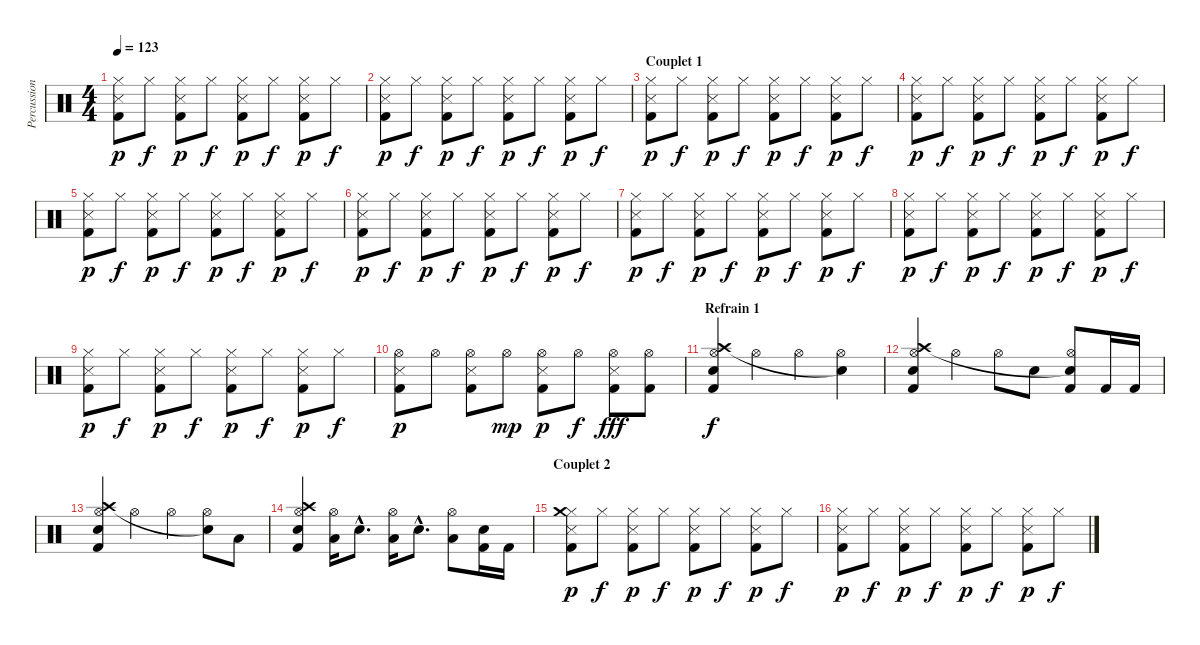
\track ("Percussions" "Percussion") {instrument percussion}
\staff {score}
\articulation defaults
\ts (4 4)
\tempo 123
\clef neutral
\ks c
("Hi-Hat (closed)" "Snare (side stick) 3" "Kick (hit) 2").8{dy p} "Hi-Hat (closed)".8{dy f} ("Hi-Hat (closed)" "Snare (side stick) 3" "Kick (hit) 2").8{dy p} "Hi-Hat (closed)".8{dy f} ("Hi-Hat (closed)" "Snare (side stick) 3" "Kick (hit) 2").8{dy p} "Hi-Hat (closed)".8{dy f} ("Hi-Hat (closed)" "Snare (side stick) 3" "Kick (hit) 2").8{dy p} "Hi-Hat (closed)".8{dy f} |
("Hi-Hat (closed)" "Snare (side stick) 3" "Kick (hit) 2").8{dy p} "Hi-Hat (closed)".8{dy f} ("Hi-Hat (closed)" "Snare (side stick) 3" "Kick (hit) 2").8{dy p} "Hi-Hat (closed)".8{dy f} ("Hi-Hat (closed)" "Snare (side stick) 3" "Kick (hit) 2").8{dy p} "Hi-Hat (closed)".8{dy f} ("Hi-Hat (closed)" "Snare (side stick) 3" "Kick (hit) 2").8{dy p} "Hi-Hat (closed)".8{dy f} |
\section ("" "Couplet 1")
("Hi-Hat (closed)" "Snare (side stick) 3" "Kick (hit) 2").8{dy p} "Hi-Hat (closed)".8{dy f} ("Hi-Hat (closed)" "Snare (side stick) 3" "Kick (hit) 2").8{dy p} "Hi-Hat (closed)".8{dy f} ("Hi-Hat (closed)" "Snare (side stick) 3" "Kick (hit) 2").8{dy p} "Hi-Hat (closed)".8{dy f} ("Hi-Hat (closed)" "Snare (side stick) 3" "Kick (hit) 2").8{dy p} "Hi-Hat (closed)".8{dy f} |
("Hi-Hat (closed)" "Snare (side stick) 3" "Kick (hit) 2").8{dy p} "Hi-Hat (closed)".8{dy f} ("Hi-Hat (closed)" "Snare (side stick) 3" "Kick (hit) 2").8{dy p} "Hi-Hat (closed)".8{dy f} ("Hi-Hat (closed)" "Snare (side stick) 3" "Kick (hit) 2").8{dy p} "Hi-Hat (closed)".8{dy f} ("Hi-Hat (closed)" "Snare (side stick) 3" "Kick (hit) 2").8{dy p} "Hi-Hat (closed)".8{dy f} |
("Hi-Hat (closed)" "Snare (side stick) 3" "Kick (hit) 2").8{dy p} "Hi-Hat (closed)".8{dy f} ("Hi-Hat (closed)" "Snare (side stick) 3" "Kick (hit) 2").8{dy p} "Hi-Hat (closed)".8{dy f} ("Hi-Hat (closed)" "Snare (side stick) 3" "Kick (hit) 2").8{dy p} "Hi-Hat (closed)".8{dy f} ("Hi-Hat (closed)" "Snare (side stick) 3" "Kick (hit) 2").8{dy p} "Hi-Hat (closed)".8{dy f} |
("Hi-Hat (closed)" "Snare (side stick) 3" "Kick (hit) 2").8{dy p} "Hi-Hat (closed)".8{dy f} ("Hi-Hat (closed)" "Snare (side stick) 3" "Kick (hit) 2").8{dy p} "Hi-Hat (closed)".8{dy f} ("Hi-Hat (closed)" "Snare (side stick) 3" "Kick (hit) 2").8{dy p} "Hi-Hat (closed)".8{dy f} ("Hi-Hat (closed)" "Snare (side stick) 3" "Kick (hit) 2").8{dy p} "Hi-Hat (closed)".8{dy f} |
("Hi-Hat (closed)" "Snare (side stick) 3" "Kick (hit) 2").8{dy p} "Hi-Hat (closed)".8{dy f} ("Hi-Hat (closed)" "Snare (side stick) 3" "Kick (hit) 2").8{dy p} "Hi-Hat (closed)".8{dy f} ("Hi-Hat (closed)" "Snare (side stick) 3" "Kick (hit) 2").8{dy p} "Hi-Hat (closed)".8{dy f} ("Hi-Hat (closed)" "Snare (side stick) 3" "Kick (hit) 2").8{dy p} "Hi-Hat (closed)".8{dy f} |
("Hi-Hat (closed)" "Snare (side stick) 3" "Kick (hit) 2").8{dy p} "Hi-Hat (closed)".8{dy f} ("Hi-Hat (closed)" "Snare (side stick) 3" "Kick (hit) 2").8{dy p} "Hi-Hat (closed)".8{dy f} ("Hi-Hat (closed)" "Snare (side stick) 3" "Kick (hit) 2").8{dy p} "Hi-Hat (closed)".8{dy f} ("Hi-Hat (closed)" "Snare (side stick) 3" "Kick (hit) 2").8{dy p} "Hi-Hat (closed)".8{dy f} |
("Hi-Hat (closed)" "Snare (side stick) 3" "Kick (hit) 2").8{dy p} "Hi-Hat (closed)".8{dy f} ("Hi-Hat (closed)" "Snare (side stick) 3" "Kick (hit) 2").8{dy p} "Hi-Hat (closed)".8{dy f} ("Hi-Hat (closed)" "Snare (side stick) 3" "Kick (hit) 2").8{dy p} "Hi-Hat (closed)".8{dy f} ("Hi-Hat (closed)" "Snare (side stick) 3" "Kick (hit) 2").8{dy p} "Hi-Hat (closed)".8{dy f} |
("Hi-Hat (open)" "Snare (side stick) 3" "Kick (hit) 2").8{dy p} "Hi-Hat (open)".8 ("Hi-Hat (open)" "Snare (side stick) 3" "Kick (hit) 2").8 "Hi-Hat (open)".8{dy mp} ("Hi-Hat (open)" "Snare (side stick) 3" "Kick (hit) 2").8{dy p} "Hi-Hat (open)".8{dy f} ("Hi-Hat (open)" "Snare (side stick) 3" "Kick (hit) 2").8{dy fff} ("Hi-Hat (open)" "Kick (hit) 2").8 |
\section ("" "Refrain 1")
("Hi-Hat (open)" "Crash high (hit)" "Electric Snare (hit)" "Kick (hit) 2").4{dy f} "Hi-Hat (open)".4 "Hi-Hat (open)".4 ("Hi-Hat (open)" "Snare (hit)"{t}).4 |
("Hi-Hat (open)" "Crash high (hit)" "Electric Snare (hit)" "Kick (hit) 2").4 "Hi-Hat (open)".4 "Hi-Hat (open)".8 "Electric Snare (hit)".8 ("Hi-Hat (open)" "Snare (hit)"{t} "Kick (hit) 2").8 "Kick (hit) 2".16 "Kick (hit) 2".16 |
("Hi-Hat (open)" "Crash high (hit)" "Electric Snare (hit)" "Kick (hit) 2").4 "Hi-Hat (open)".4 "Hi-Hat (open)".4 ("Hi-Hat (open)" "Snare (hit)"{t}).8 "Low Floor Tom (hit)".8 |
("Hi-Hat (open)" "Crash high (hit)" "Electric Snare (hit)" "Kick (hit) 2").4 ("Hi-Hat (open)" "Low Floor Tom (hit)").16 "Electric Snare (hit)"{hac}.8{d} ("Hi-Hat (open)" "Low Floor Tom (hit)").16 "Electric Snare (hit)"{hac}.8{d} ("Hi-Hat (open)" "Low Floor Tom (hit)").8 ("Electric Snare (hit)" "Kick (hit) 2").16 "Kick (hit) 2".16 |
\section ("" "Couplet 2")
("Hi-Hat (closed)" "Crash medium (hit)" "Snare (side stick) 3" "Kick (hit) 2").8{dy p} "Hi-Hat (closed)".8{dy f} ("Hi-Hat (closed)" "Snare (side stick) 3" "Kick (hit) 2").8{dy p} "Hi-Hat (closed)".8{dy f} ("Hi-Hat (closed)" "Snare (side stick) 3" "Kick (hit) 2").8{dy p} "Hi-Hat (closed)".8{dy f} ("Hi-Hat (closed)" "Snare (side stick) 3" "Kick (hit) 2").8{dy p} "Hi-Hat (closed)".8{dy f} |
("Hi-Hat (closed)" "Snare (side stick) 3" "Kick (hit) 2").8{dy p} "Hi-Hat (closed)".8{dy f} ("Hi-Hat (closed)" "Snare (side stick) 3" "Kick (hit) 2").8{dy p} "Hi-Hat (closed)".8{dy f} ("Hi-Hat (closed)" "Snare (side stick) 3" "Kick (hit) 2").8{dy p} "Hi-Hat (closed)".8{dy f} ("Hi-Hat (closed)" "Snare (side stick) 3" "Kick (hit) 2").8{dy p} "Hi-Hat (closed)".8{dy f}
